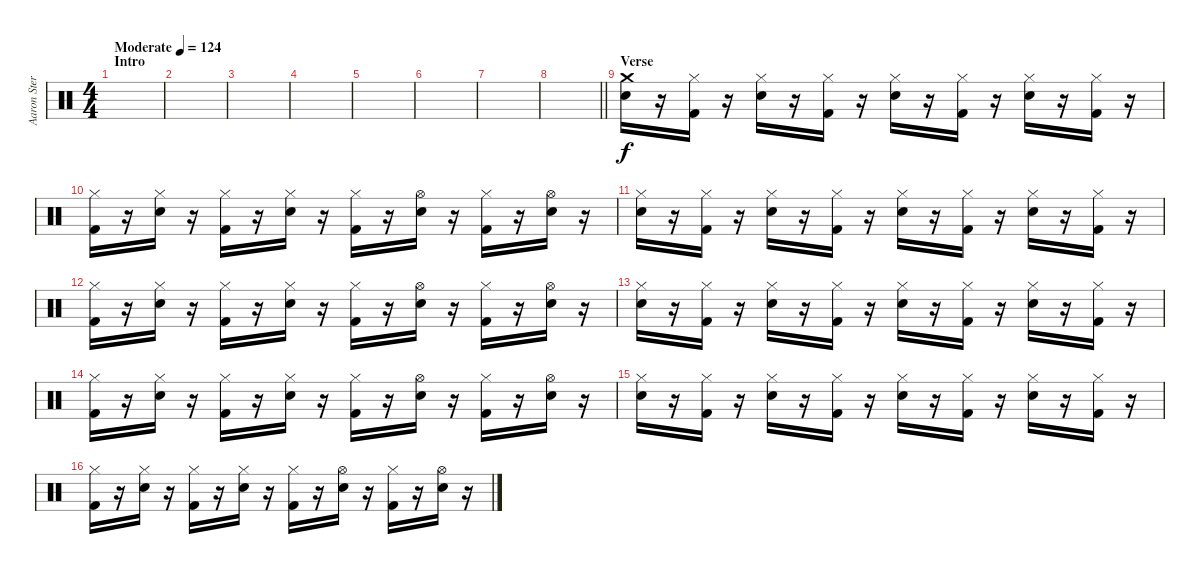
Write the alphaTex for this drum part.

\track ("Aaron Stern" "Aaron Ster") {instrument percussion}
\staff {score}
\articulation defaults
\ts (4 4)
\section ("" "Intro")
\tempo (124 "Moderate")
\clef neutral
\ks c
|
|
|
|
|
|
|
\barLineRight lightlight
|
\section ("" "Verse")
("Crash medium (hit)" "Snare (hit) 2").16 r.16 ("Hi-Hat (closed)" "Kick (hit) 2").16 r.16 ("Hi-Hat (closed)" "Snare (hit) 2").16 r.16 ("Hi-Hat (closed)" "Kick (hit) 2").16 r.16 ("Hi-Hat (closed)" "Snare (hit) 2").16 r.16 ("Hi-Hat (closed)" "Kick (hit) 2").16 r.16 ("Hi-Hat (closed)" "Snare (hit) 2").16 r.16 ("Hi-Hat (closed)" "Kick (hit) 2").16 r.16 |
("Hi-Hat (closed)" "Kick (hit) 2").16 r.16 ("Hi-Hat (closed)" "Snare (hit) 2").16 r.16 ("Hi-Hat (closed)" "Kick (hit) 2").16 r.16 ("Hi-Hat (closed)" "Snare (hit) 2").16 r.16 ("Hi-Hat (closed)" "Kick (hit) 2").16 r.16 ("Hi-Hat (open)" "Snare (hit) 2").16 r.16 ("Hi-Hat (closed)" "Kick (hit) 2").16 r.16 ("Hi-Hat (open)" "Snare (hit) 2").16 r.16 |
("Hi-Hat (closed)" "Snare (hit) 2").16 r.16 ("Hi-Hat (closed)" "Kick (hit) 2").16 r.16 ("Hi-Hat (closed)" "Snare (hit) 2").16 r.16 ("Hi-Hat (closed)" "Kick (hit) 2").16 r.16 ("Hi-Hat (closed)" "Snare (hit) 2").16 r.16 ("Hi-Hat (closed)" "Kick (hit) 2").16 r.16 ("Hi-Hat (closed)" "Snare (hit) 2").16 r.16 ("Hi-Hat (closed)" "Kick (hit) 2").16 r.16 |
("Hi-Hat (closed)" "Kick (hit) 2").16 r.16 ("Hi-Hat (closed)" "Snare (hit) 2").16 r.16 ("Hi-Hat (closed)" "Kick (hit) 2").16 r.16 ("Hi-Hat (closed)" "Snare (hit) 2").16 r.16 ("Hi-Hat (closed)" "Kick (hit) 2").16 r.16 ("Hi-Hat (open)" "Snare (hit) 2").16 r.16 ("Hi-Hat (closed)" "Kick (hit) 2").16 r.16 ("Hi-Hat (open)" "Snare (hit) 2").16 r.16 |
("Hi-Hat (closed)" "Snare (hit) 2").16 r.16 ("Hi-Hat (closed)" "Kick (hit) 2").16 r.16 ("Hi-Hat (closed)" "Snare (hit) 2").16 r.16 ("Hi-Hat (closed)" "Kick (hit) 2").16 r.16 ("Hi-Hat (closed)" "Snare (hit) 2").16 r.16 ("Hi-Hat (closed)" "Kick (hit) 2").16 r.16 ("Hi-Hat (closed)" "Snare (hit) 2").16 r.16 ("Hi-Hat (closed)" "Kick (hit) 2").16 r.16 |
("Hi-Hat (closed)" "Kick (hit) 2").16 r.16 ("Hi-Hat (closed)" "Snare (hit) 2").16 r.16 ("Hi-Hat (closed)" "Kick (hit) 2").16 r.16 ("Hi-Hat (closed)" "Snare (hit) 2").16 r.16 ("Hi-Hat (closed)" "Kick (hit) 2").16 r.16 ("Hi-Hat (open)" "Snare (hit) 2").16 r.16 ("Hi-Hat (closed)" "Kick (hit) 2").16 r.16 ("Hi-Hat (open)" "Snare (hit) 2").16 r.16 |
("Hi-Hat (closed)" "Snare (hit) 2").16 r.16 ("Hi-Hat (closed)" "Kick (hit) 2").16 r.16 ("Hi-Hat (closed)" "Snare (hit) 2").16 r.16 ("Hi-Hat (closed)" "Kick (hit) 2").16 r.16 ("Hi-Hat (closed)" "Snare (hit) 2").16 r.16 ("Hi-Hat (closed)" "Kick (hit) 2").16 r.16 ("Hi-Hat (closed)" "Snare (hit) 2").16 r.16 ("Hi-Hat (closed)" "Kick (hit) 2").16 r.16 |
("Hi-Hat (closed)" "Kick (hit) 2").16 r.16 ("Hi-Hat (closed)" "Snare (hit) 2").16 r.16 ("Hi-Hat (closed)" "Kick (hit) 2").16 r.16 ("Hi-Hat (closed)" "Snare (hit) 2").16 r.16 ("Hi-Hat (closed)" "Kick (hit) 2").16 r.16 ("Hi-Hat (open)" "Snare (hit) 2").16 r.16 ("Hi-Hat (closed)" "Kick (hit) 2").16 r.16 ("Hi-Hat (open)" "Snare (hit) 2").16 r.16
